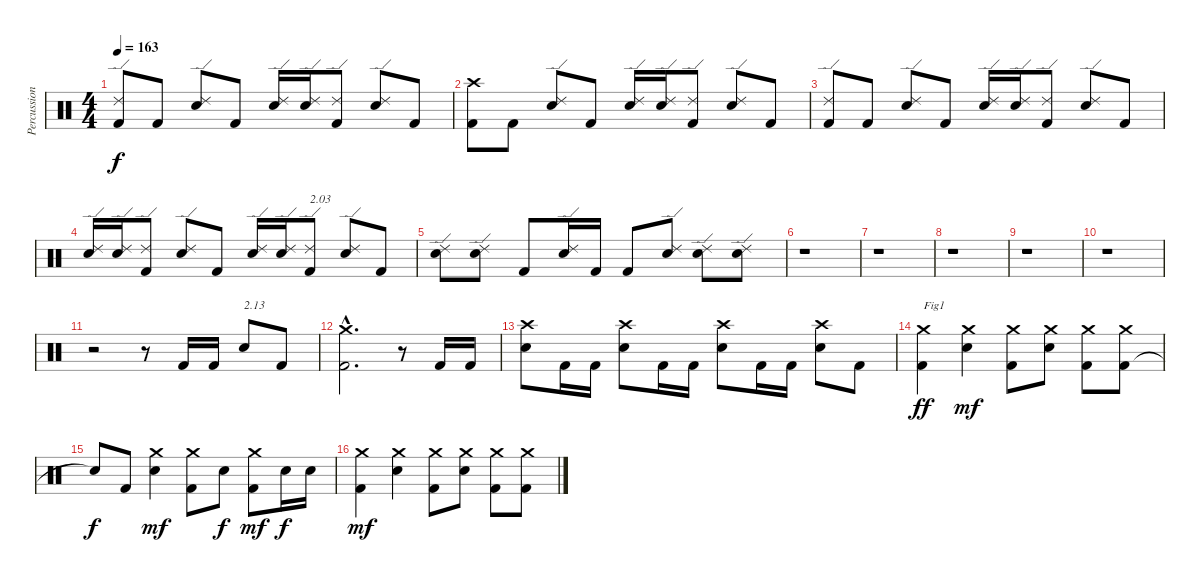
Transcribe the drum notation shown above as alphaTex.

\track ("Percussions" "Percussion") {instrument percussion}
\staff {score}
\articulation defaults
\ts (4 4)
\tempo 163
\clef neutral
\ks c
("Kick (hit) 2" "Ride (edge) 2").8{dy f} "Kick (hit) 2".8 ("Electric Snare (hit)" "Ride (edge) 2").8 "Kick (hit) 2".8 ("Electric Snare (hit)" "Ride (edge) 2").16 ("Electric Snare (hit)" "Ride (edge) 2").16 ("Kick (hit) 2" "Ride (edge) 2").8 ("Electric Snare (hit)" "Ride (edge) 2").8 "Kick (hit) 2".8 |
("Kick (hit) 2" "Crash high (hit)").8 "Kick (hit) 2".8 ("Electric Snare (hit)" "Ride (edge) 2").8 "Kick (hit) 2".8 ("Electric Snare (hit)" "Ride (edge) 2").16 ("Electric Snare (hit)" "Ride (edge) 2").16 ("Kick (hit) 2" "Ride (edge) 2").8 ("Electric Snare (hit)" "Ride (edge) 2").8 "Kick (hit) 2".8 |
("Kick (hit) 2" "Ride (edge) 2").8 "Kick (hit) 2".8 ("Electric Snare (hit)" "Ride (edge) 2").8 "Kick (hit) 2".8 ("Electric Snare (hit)" "Ride (edge) 2").16 ("Electric Snare (hit)" "Ride (edge) 2").16 ("Kick (hit) 2" "Ride (edge) 2").8 ("Electric Snare (hit)" "Ride (edge) 2").8 "Kick (hit) 2".8 |
("Electric Snare (hit)" "Ride (edge) 2").16 ("Electric Snare (hit)" "Ride (edge) 2").16 ("Kick (hit) 2" "Ride (edge) 2").8 ("Electric Snare (hit)" "Ride (edge) 2").8 "Kick (hit) 2".8 ("Electric Snare (hit)" "Ride (edge) 2").16 ("Electric Snare (hit)" "Ride (edge) 2").16 ("Kick (hit) 2" "Ride (edge) 2").8{txt "2.03"} ("Electric Snare (hit)" "Ride (edge) 2").8 "Kick (hit) 2".8 |
("Electric Snare (hit)" "Ride (edge) 2").8 ("Electric Snare (hit)" "Ride (edge) 2").8 "Kick (hit) 2".8 ("Electric Snare (hit)" "Ride (edge) 2").16 "Kick (hit) 2".16 "Kick (hit) 2".8 ("Electric Snare (hit)" "Ride (edge) 2").8 ("Electric Snare (hit)" "Ride (edge) 2").8 ("Electric Snare (hit)" "Ride (edge) 2").8 |
r.1 |
r.1 |
r.1 |
r.1 |
r.1 |
r.2 r.8 "Kick (hit) 2".16 "Kick (hit) 2".16 "Electric Snare (hit)".8{txt "2.13"} "Kick (hit) 2".8 |
("Kick (hit) 2"{hac} "Crash medium (hit)"{hac}).2{d} r.8 "Kick (hit) 2".16 "Kick (hit) 2".16 |
("Electric Snare (hit)" "Crash high (hit)").8 "Kick (hit) 2".16 "Kick (hit) 2".16 ("Electric Snare (hit)" "Crash high (hit)").8 "Kick (hit) 2".16 "Kick (hit) 2".16 ("Electric Snare (hit)" "Crash high (hit)").8 "Kick (hit) 2".16 "Kick (hit) 2".16 ("Electric Snare (hit)" "Crash high (hit)").8 "Kick (hit) 2".8 |
("Kick (hit) 2" "Crash medium (hit)").4{txt "Fig1" dy ff} ("Electric Snare (hit)" "Crash medium (hit)").4{dy mf} ("Kick (hit) 2" "Crash medium (hit)").8 ("Electric Snare (hit)" "Crash medium (hit)").8 ("Kick (hit) 2" "Crash medium (hit)").8 ("Kick (hit) 2" "Crash medium (hit)").8 |
"Snare (hit)"{t}.8{dy f} "Kick (hit) 2".8 ("Electric Snare (hit)" "Crash medium (hit)").4{dy mf} ("Kick (hit) 2" "Crash medium (hit)").8 "Electric Snare (hit)".8{dy f} ("Kick (hit) 2" "Crash medium (hit)").8{dy mf} "Electric Snare (hit)".16{dy f} "Electric Snare (hit)".16 |
("Kick (hit) 2" "Crash medium (hit)").4{dy mf} ("Electric Snare (hit)" "Crash medium (hit)").4 ("Kick (hit) 2" "Crash medium (hit)").8 ("Electric Snare (hit)" "Crash medium (hit)").8 ("Kick (hit) 2" "Crash medium (hit)").8 ("Kick (hit) 2" "Crash medium (hit)").8
